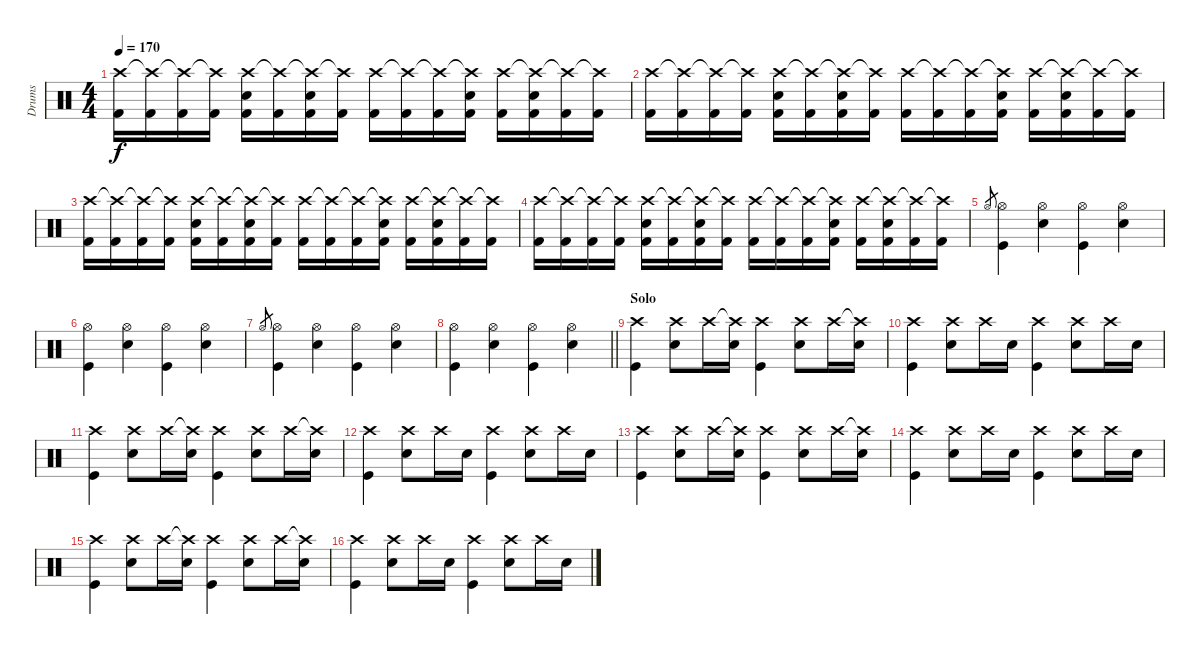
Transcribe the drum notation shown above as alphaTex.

\track ("Drums" "Drums") {instrument percussion}
\staff {score}
\articulation defaults
\ts (4 4)
\tempo 170
\clef neutral
\ks c
("Crash high (hit)" "Kick (hit) 2").16{dy f} ("Crash high (hit)"{t} "Kick (hit) 2").16 ("Crash high (hit)"{t} "Kick (hit) 2").16 ("Crash high (hit)"{t} "Kick (hit) 2").16 ("Crash high (hit)" "Snare (hit) 2" "Kick (hit) 2").16 ("Crash high (hit)"{t} "Kick (hit) 2").16 ("Crash high (hit)"{t} "Snare (hit) 2" "Kick (hit) 2").16 ("Crash high (hit)"{t} "Kick (hit) 2").16 ("Crash high (hit)" "Kick (hit) 2").16 ("Crash high (hit)"{t} "Kick (hit) 2").16 ("Crash high (hit)"{t} "Kick (hit) 2").16 ("Crash high (hit)"{t} "Snare (hit) 2" "Kick (hit) 2").16 ("Crash high (hit)" "Kick (hit) 2").16 ("Crash high (hit)"{t} "Snare (hit) 2" "Kick (hit) 2").16 ("Crash high (hit)"{t} "Kick (hit) 2").16 ("Crash high (hit)"{t} "Kick (hit) 2").16 |
("Crash high (hit)" "Kick (hit) 2").16 ("Crash high (hit)"{t} "Kick (hit) 2").16 ("Crash high (hit)"{t} "Kick (hit) 2").16 ("Crash high (hit)"{t} "Kick (hit) 2").16 ("Crash high (hit)" "Snare (hit) 2" "Kick (hit) 2").16 ("Crash high (hit)"{t} "Kick (hit) 2").16 ("Crash high (hit)"{t} "Snare (hit) 2" "Kick (hit) 2").16 ("Crash high (hit)"{t} "Kick (hit) 2").16 ("Crash high (hit)" "Kick (hit) 2").16 ("Crash high (hit)"{t} "Kick (hit) 2").16 ("Crash high (hit)"{t} "Kick (hit) 2").16 ("Crash high (hit)"{t} "Snare (hit) 2" "Kick (hit) 2").16 ("Crash high (hit)" "Kick (hit) 2").16 ("Crash high (hit)"{t} "Snare (hit) 2" "Kick (hit) 2").16 ("Crash high (hit)"{t} "Kick (hit) 2").16 ("Crash high (hit)"{t} "Kick (hit) 2").16 |
("Crash high (hit)" "Kick (hit) 2").16 ("Crash high (hit)"{t} "Kick (hit) 2").16 ("Crash high (hit)"{t} "Kick (hit) 2").16 ("Crash high (hit)"{t} "Kick (hit) 2").16 ("Crash high (hit)" "Snare (hit) 2" "Kick (hit) 2").16 ("Crash high (hit)"{t} "Kick (hit) 2").16 ("Crash high (hit)"{t} "Snare (hit) 2" "Kick (hit) 2").16 ("Crash high (hit)"{t} "Kick (hit) 2").16 ("Crash high (hit)" "Kick (hit) 2").16 ("Crash high (hit)"{t} "Kick (hit) 2").16 ("Crash high (hit)"{t} "Kick (hit) 2").16 ("Crash high (hit)"{t} "Snare (hit) 2" "Kick (hit) 2").16 ("Crash high (hit)" "Kick (hit) 2").16 ("Crash high (hit)"{t} "Snare (hit) 2" "Kick (hit) 2").16 ("Crash high (hit)"{t} "Kick (hit) 2").16 ("Crash high (hit)"{t} "Kick (hit) 2").16 |
("Crash high (hit)" "Kick (hit) 2").16 ("Crash high (hit)"{t} "Kick (hit) 2").16 ("Crash high (hit)"{t} "Kick (hit) 2").16 ("Crash high (hit)"{t} "Kick (hit) 2").16 ("Crash high (hit)" "Snare (hit) 2" "Kick (hit) 2").16 ("Crash high (hit)"{t} "Kick (hit) 2").16 ("Crash high (hit)"{t} "Snare (hit) 2" "Kick (hit) 2").16 ("Crash high (hit)"{t} "Kick (hit) 2").16 ("Crash high (hit)" "Kick (hit) 2").16 ("Crash high (hit)"{t} "Kick (hit) 2").16 ("Crash high (hit)"{t} "Kick (hit) 2").16 ("Crash high (hit)"{t} "Snare (hit) 2" "Kick (hit) 2").16 ("Crash high (hit)" "Kick (hit) 2").16 ("Crash high (hit)"{t} "Snare (hit) 2" "Kick (hit) 2").16 ("Crash high (hit)"{t} "Kick (hit) 2").16 ("Crash high (hit)"{t} "Kick (hit) 2").16 |
"Hi-Hat (open)".8{gr} ("Hi-Hat (open)" "Kick (hit)").4 ("Hi-Hat (open)" "Snare (hit) 2").4 ("Hi-Hat (open)" "Kick (hit)").4 ("Hi-Hat (open)" "Snare (hit) 2").4 |
("Hi-Hat (open)" "Kick (hit)").4 ("Hi-Hat (open)" "Snare (hit) 2").4 ("Hi-Hat (open)" "Kick (hit)").4 ("Hi-Hat (open)" "Snare (hit) 2").4 |
"Hi-Hat (open)".8{gr} ("Hi-Hat (open)" "Kick (hit)").4 ("Hi-Hat (open)" "Snare (hit) 2").4 ("Hi-Hat (open)" "Kick (hit)").4 ("Hi-Hat (open)" "Snare (hit) 2").4 |
\barLineRight lightlight
("Hi-Hat (open)" "Kick (hit)").4 ("Hi-Hat (open)" "Snare (hit) 2").4 ("Hi-Hat (open)" "Kick (hit)").4 ("Hi-Hat (open)" "Snare (hit) 2").4 |
\section ("" "Solo")
("Crash high (hit)" "Kick (hit)").4 ("Crash high (hit)" "Snare (hit) 2").8 "Crash high (hit)".16 ("Crash high (hit)"{t} "Snare (hit) 2").16 ("Crash high (hit)" "Kick (hit)").4 ("Crash high (hit)" "Snare (hit) 2").8 "Crash high (hit)".16 ("Crash high (hit)"{t} "Snare (hit) 2").16 |
("Crash high (hit)" "Kick (hit)").4 ("Crash high (hit)" "Snare (hit) 2").8 "Crash high (hit)".16 "Snare (hit) 2".16 ("Crash high (hit)" "Kick (hit)").4 ("Crash high (hit)" "Snare (hit) 2").8 "Crash high (hit)".16 "Snare (hit) 2".16 |
("Crash high (hit)" "Kick (hit)").4 ("Crash high (hit)" "Snare (hit) 2").8 "Crash high (hit)".16 ("Crash high (hit)"{t} "Snare (hit) 2").16 ("Crash high (hit)" "Kick (hit)").4 ("Crash high (hit)" "Snare (hit) 2").8 "Crash high (hit)".16 ("Crash high (hit)"{t} "Snare (hit) 2").16 |
("Crash high (hit)" "Kick (hit)").4 ("Crash high (hit)" "Snare (hit) 2").8 "Crash high (hit)".16 "Snare (hit) 2".16 ("Crash high (hit)" "Kick (hit)").4 ("Crash high (hit)" "Snare (hit) 2").8 "Crash high (hit)".16 "Snare (hit) 2".16 |
("Crash high (hit)" "Kick (hit)").4 ("Crash high (hit)" "Snare (hit) 2").8 "Crash high (hit)".16 ("Crash high (hit)"{t} "Snare (hit) 2").16 ("Crash high (hit)" "Kick (hit)").4 ("Crash high (hit)" "Snare (hit) 2").8 "Crash high (hit)".16 ("Crash high (hit)"{t} "Snare (hit) 2").16 |
("Crash high (hit)" "Kick (hit)").4 ("Crash high (hit)" "Snare (hit) 2").8 "Crash high (hit)".16 "Snare (hit) 2".16 ("Crash high (hit)" "Kick (hit)").4 ("Crash high (hit)" "Snare (hit) 2").8 "Crash high (hit)".16 "Snare (hit) 2".16 |
("Crash high (hit)" "Kick (hit)").4 ("Crash high (hit)" "Snare (hit) 2").8 "Crash high (hit)".16 ("Crash high (hit)"{t} "Snare (hit) 2").16 ("Crash high (hit)" "Kick (hit)").4 ("Crash high (hit)" "Snare (hit) 2").8 "Crash high (hit)".16 ("Crash high (hit)"{t} "Snare (hit) 2").16 |
("Crash high (hit)" "Kick (hit)").4 ("Crash high (hit)" "Snare (hit) 2").8 "Crash high (hit)".16 "Snare (hit) 2".16 ("Crash high (hit)" "Kick (hit)").4 ("Crash high (hit)" "Snare (hit) 2").8 "Crash high (hit)".16 "Snare (hit) 2".16
